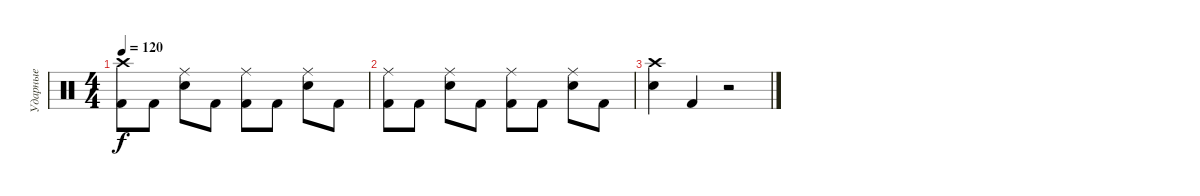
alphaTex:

\track ("Ударные" "Ударные") {instrument percussion}
\staff {score}
\articulation defaults
\ts (4 4)
\tempo 120
\clef neutral
\ks c
("Crash high (hit)" "Kick (hit) 2").8{dy f} "Kick (hit) 2".8 ("Ride (middle)" "Snare (hit) 2").8 "Kick (hit) 2".8 ("Ride (middle)" "Kick (hit) 2").8 "Kick (hit) 2".8 ("Ride (middle)" "Snare (hit) 2").8 "Kick (hit) 2".8 |
("Ride (middle)" "Kick (hit) 2").8 "Kick (hit) 2".8 ("Ride (middle)" "Snare (hit) 2").8 "Kick (hit) 2".8 ("Ride (middle)" "Kick (hit) 2").8 "Kick (hit) 2".8 ("Ride (middle)" "Snare (hit) 2").8 "Kick (hit) 2".8 |
("Crash high (hit)" "Snare (hit) 2").4 "Kick (hit) 2".4 r.2
